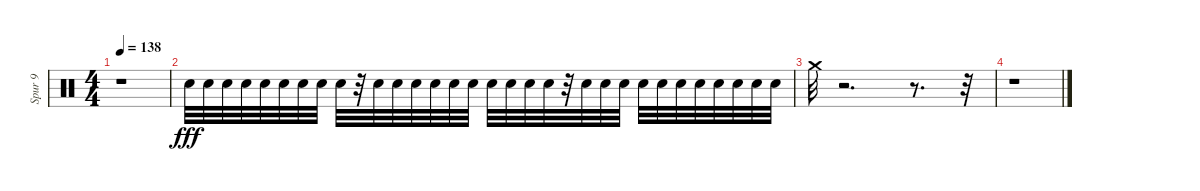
\track ("Spur 9" "Spur 9") {instrument percussion}
\staff {score}
\articulation defaults
\ts (4 4)
\tempo 138
\clef neutral
\ks c
r.1{dy fff} |
"Electric Snare (hit)".32{volume 5} "Electric Snare (hit)".32{volume 5} "Electric Snare (hit)".32{volume 6} "Electric Snare (hit)".32{volume 6} "Electric Snare (hit)".32{volume 6} "Electric Snare (hit)".32{volume 6} "Electric Snare (hit)".32{volume 6} "Electric Snare (hit)".32{volume 7} "Electric Snare (hit)".32{volume 7} r.32 "Electric Snare (hit)".32{volume 7} "Electric Snare (hit)".32{volume 7} "Electric Snare (hit)".32{volume 8} "Electric Snare (hit)".32{volume 8} "Electric Snare (hit)".32{volume 8} "Electric Snare (hit)".32{volume 8} "Electric Snare (hit)".32{volume 8} "Electric Snare (hit)".32{volume 8} "Electric Snare (hit)".32{volume 9} "Electric Snare (hit)".32{volume 9} r.32 "Electric Snare (hit)".32{volume 9} "Electric Snare (hit)".32{volume 9} "Electric Snare (hit)".32{volume 10} "Electric Snare (hit)".32{volume 10} "Electric Snare (hit)".32{volume 10} "Electric Snare (hit)".32 "Electric Snare (hit)".32{volume 10} "Electric Snare (hit)".32{volume 10} "Electric Snare (hit)".32{volume 10} "Electric Snare (hit)".32{volume 11} "Electric Snare (hit)".32{volume 11} |
"Crash medium (hit)".32 r.2{d} r.8{d} r.32 |
r.1
